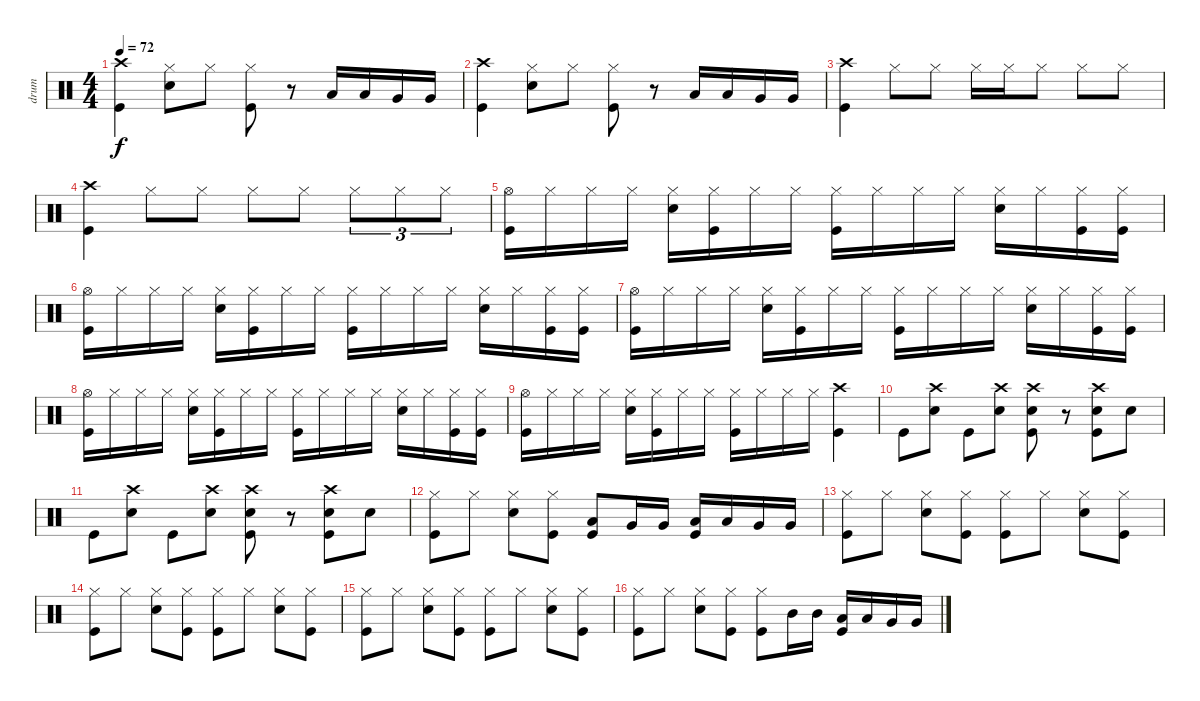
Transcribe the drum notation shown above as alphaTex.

\track ("drum" "drum") {instrument percussion}
\staff {score}
\articulation defaults
\ts (4 4)
\tempo 72
\clef neutral
\ks c
("Crash high (hit)" "Kick (hit)").4{dy f} ("Hi-Hat (closed)" "Snare (hit) 2").8 "Hi-Hat (closed)".8 ("Hi-Hat (closed)" "Kick (hit)").8 r.8 "Low Tom (hit)".16 "Low Tom (hit)".16 "Very Low Tom (hit)".16 "Very Low Tom (hit)".16 |
("Crash high (hit)" "Kick (hit)").4 ("Hi-Hat (closed)" "Snare (hit) 2").8 "Hi-Hat (closed)".8 ("Hi-Hat (closed)" "Kick (hit)").8 r.8 "Low Tom (hit)".16 "Low Tom (hit)".16 "Very Low Tom (hit)".16 "Very Low Tom (hit)".16 |
("Crash high (hit)" "Kick (hit)").4 "Hi-Hat (closed)".8 "Hi-Hat (closed)".8 "Hi-Hat (closed)".16 "Hi-Hat (closed)".16 "Hi-Hat (closed)".8 "Hi-Hat (closed)".8 "Hi-Hat (closed)".8 |
("Crash high (hit)" "Kick (hit)").4 "Hi-Hat (closed)".8 "Hi-Hat (closed)".8 "Hi-Hat (closed)".8 "Hi-Hat (closed)".8 "Hi-Hat (closed)".8{tu (3 2)} "Hi-Hat (closed)".8{tu (3 2)} "Hi-Hat (closed)".8{tu (3 2)} |
("Hi-Hat (open)" "Kick (hit)").16 "Hi-Hat (closed)".16 "Hi-Hat (closed)".16 "Hi-Hat (closed)".16 ("Hi-Hat (closed)" "Snare (hit) 2").16 ("Hi-Hat (closed)" "Kick (hit)").16 "Hi-Hat (closed)".16 "Hi-Hat (closed)".16 ("Hi-Hat (closed)" "Kick (hit)").16 "Hi-Hat (closed)".16 "Hi-Hat (closed)".16 "Hi-Hat (closed)".16 ("Hi-Hat (closed)" "Snare (hit) 2").16 "Hi-Hat (closed)".16 ("Hi-Hat (closed)" "Kick (hit)").16 ("Hi-Hat (closed)" "Kick (hit)").16 |
("Hi-Hat (open)" "Kick (hit)").16 "Hi-Hat (closed)".16 "Hi-Hat (closed)".16 "Hi-Hat (closed)".16 ("Hi-Hat (closed)" "Snare (hit) 2").16 ("Hi-Hat (closed)" "Kick (hit)").16 "Hi-Hat (closed)".16 "Hi-Hat (closed)".16 ("Hi-Hat (closed)" "Kick (hit)").16 "Hi-Hat (closed)".16 "Hi-Hat (closed)".16 "Hi-Hat (closed)".16 ("Hi-Hat (closed)" "Snare (hit) 2").16 "Hi-Hat (closed)".16 ("Hi-Hat (closed)" "Kick (hit)").16 ("Hi-Hat (closed)" "Kick (hit)").16 |
("Hi-Hat (open)" "Kick (hit)").16 "Hi-Hat (closed)".16 "Hi-Hat (closed)".16 "Hi-Hat (closed)".16 ("Hi-Hat (closed)" "Snare (hit) 2").16 ("Hi-Hat (closed)" "Kick (hit)").16 "Hi-Hat (closed)".16 "Hi-Hat (closed)".16 ("Hi-Hat (closed)" "Kick (hit)").16 "Hi-Hat (closed)".16 "Hi-Hat (closed)".16 "Hi-Hat (closed)".16 ("Hi-Hat (closed)" "Snare (hit) 2").16 "Hi-Hat (closed)".16 ("Hi-Hat (closed)" "Kick (hit)").16 ("Hi-Hat (closed)" "Kick (hit)").16 |
("Hi-Hat (open)" "Kick (hit)").16 "Hi-Hat (closed)".16 "Hi-Hat (closed)".16 "Hi-Hat (closed)".16 ("Hi-Hat (closed)" "Snare (hit) 2").16 ("Hi-Hat (closed)" "Kick (hit)").16 "Hi-Hat (closed)".16 "Hi-Hat (closed)".16 ("Hi-Hat (closed)" "Kick (hit)").16 "Hi-Hat (closed)".16 "Hi-Hat (closed)".16 "Hi-Hat (closed)".16 ("Hi-Hat (closed)" "Snare (hit) 2").16 "Hi-Hat (closed)".16 ("Hi-Hat (closed)" "Kick (hit)").16 ("Hi-Hat (closed)" "Kick (hit)").16 |
("Hi-Hat (open)" "Kick (hit)").16 "Hi-Hat (closed)".16 "Hi-Hat (closed)".16 "Hi-Hat (closed)".16 ("Hi-Hat (closed)" "Snare (hit) 2").16 ("Hi-Hat (closed)" "Kick (hit)").16 "Hi-Hat (closed)".16 "Hi-Hat (closed)".16 ("Hi-Hat (closed)" "Kick (hit)").16 "Hi-Hat (closed)".16 "Hi-Hat (closed)".16 "Hi-Hat (closed)".16 ("Crash high (hit)" "Kick (hit)").4 |
"Kick (hit)".8 ("Crash high (hit)" "Snare (hit) 2").8 "Kick (hit)".8 ("Crash high (hit)" "Snare (hit) 2").8 ("Crash high (hit)" "Snare (hit) 2" "Kick (hit)").8 r.8 ("Crash high (hit)" "Snare (hit) 2" "Kick (hit)").8 "Snare (hit) 2".8 |
"Kick (hit)".8 ("Crash high (hit)" "Snare (hit) 2").8 "Kick (hit)".8 ("Crash high (hit)" "Snare (hit) 2").8 ("Crash high (hit)" "Snare (hit) 2" "Kick (hit)").8 r.8 ("Crash high (hit)" "Snare (hit) 2" "Kick (hit)").8 "Snare (hit) 2".8 |
("Hi-Hat (closed)" "Kick (hit)").8 "Hi-Hat (closed)".8 ("Hi-Hat (closed)" "Snare (hit) 2").8 ("Hi-Hat (closed)" "Kick (hit)").8 ("Low Tom (hit)" "Kick (hit)").8 "Very Low Tom (hit)".16 "Very Low Tom (hit)".16 ("Low Tom (hit)" "Kick (hit)").16 "Low Tom (hit)".16 "Very Low Tom (hit)".16 "Very Low Tom (hit)".16 |
("Hi-Hat (closed)" "Kick (hit)").8 "Hi-Hat (closed)".8 ("Hi-Hat (closed)" "Snare (hit) 2").8 ("Hi-Hat (closed)" "Kick (hit)").8 ("Hi-Hat (closed)" "Kick (hit)").8 "Hi-Hat (closed)".8 ("Hi-Hat (closed)" "Snare (hit) 2").8 ("Hi-Hat (closed)" "Kick (hit)").8 |
("Hi-Hat (closed)" "Kick (hit)").8 "Hi-Hat (closed)".8 ("Hi-Hat (closed)" "Snare (hit) 2").8 ("Hi-Hat (closed)" "Kick (hit)").8 ("Hi-Hat (closed)" "Kick (hit)").8 "Hi-Hat (closed)".8 ("Hi-Hat (closed)" "Snare (hit) 2").8 ("Hi-Hat (closed)" "Kick (hit)").8 |
("Hi-Hat (closed)" "Kick (hit)").8 "Hi-Hat (closed)".8 ("Hi-Hat (closed)" "Snare (hit) 2").8 ("Hi-Hat (closed)" "Kick (hit)").8 ("Hi-Hat (closed)" "Kick (hit)").8 "Hi-Hat (closed)".8 ("Hi-Hat (closed)" "Snare (hit) 2").8 ("Hi-Hat (closed)" "Kick (hit)").8 |
("Hi-Hat (closed)" "Kick (hit)").8 "Hi-Hat (closed)".8 ("Hi-Hat (closed)" "Snare (hit) 2").8 ("Hi-Hat (closed)" "Kick (hit)").8 ("Hi-Hat (closed)" "Kick (hit)").8 "Mid Tom (hit)".16 "Mid Tom (hit)".16 ("Low Tom (hit)" "Kick (hit)").16 "Low Tom (hit)".16 "Very Low Tom (hit)".16 "Very Low Tom (hit)".16
